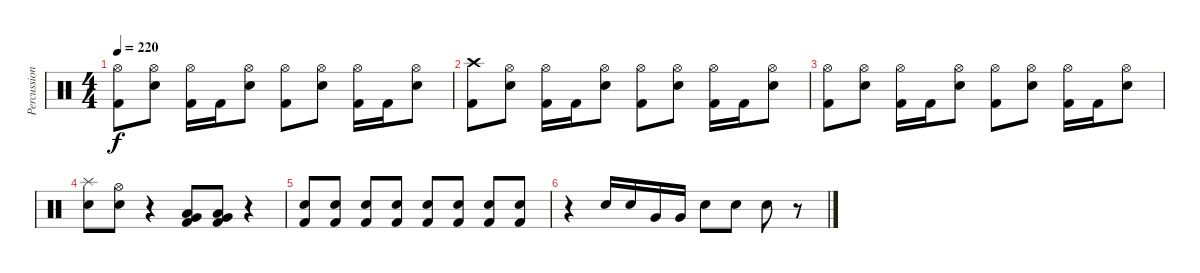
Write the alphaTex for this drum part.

\track ("Percussions" "Percussion") {instrument percussion}
\staff {score}
\articulation defaults
\ts (4 4)
\tempo 220
\clef neutral
\ks c
("Hi-Hat (open)" "Kick (hit) 2").8{dy f} ("Hi-Hat (open)" "Snare (hit) 2").8 ("Hi-Hat (open)" "Kick (hit) 2").16 "Kick (hit) 2".16 ("Hi-Hat (open)" "Snare (hit) 2").8 ("Hi-Hat (open)" "Kick (hit) 2").8 ("Hi-Hat (open)" "Snare (hit) 2").8 ("Hi-Hat (open)" "Kick (hit) 2").16 "Kick (hit) 2".16 ("Hi-Hat (open)" "Snare (hit) 2").8 |
("Crash high (hit)" "Kick (hit) 2").8 ("Hi-Hat (open)" "Snare (hit) 2").8 ("Hi-Hat (open)" "Kick (hit) 2").16 "Kick (hit) 2".16 ("Hi-Hat (open)" "Snare (hit) 2").8 ("Hi-Hat (open)" "Kick (hit) 2").8 ("Hi-Hat (open)" "Snare (hit) 2").8 ("Hi-Hat (open)" "Kick (hit) 2").16 "Kick (hit) 2".16 ("Hi-Hat (open)" "Snare (hit) 2").8 |
("Hi-Hat (open)" "Kick (hit) 2").8 ("Hi-Hat (open)" "Snare (hit) 2").8 ("Hi-Hat (open)" "Kick (hit) 2").16 "Kick (hit) 2".16 ("Hi-Hat (open)" "Snare (hit) 2").8 ("Hi-Hat (open)" "Kick (hit) 2").8 ("Hi-Hat (open)" "Snare (hit) 2").8 ("Hi-Hat (open)" "Kick (hit) 2").16 "Kick (hit) 2".16 ("Hi-Hat (open)" "Snare (hit) 2").8 |
("Splash (hit)" "Snare (hit) 2").8 ("Hi-Hat (open)" "Snare (hit) 2").8 r.4 ("Very Low Tom (hit)" "Low Floor Tom (hit)" "Kick (hit) 2").8 ("Very Low Tom (hit)" "Low Floor Tom (hit)" "Kick (hit) 2").8 r.4 |
("Snare (hit) 2" "Kick (hit) 2").8 ("Snare (hit) 2" "Kick (hit) 2").8 ("Snare (hit) 2" "Kick (hit) 2").8 ("Snare (hit) 2" "Kick (hit) 2").8 ("Snare (hit) 2" "Kick (hit) 2").8 ("Snare (hit) 2" "Kick (hit) 2").8 ("Snare (hit) 2" "Kick (hit) 2").8 ("Snare (hit) 2" "Kick (hit) 2").8 |
r.4 "Snare (hit) 2".16 "Snare (hit) 2".16 "Very Low Tom (hit)".16 "Very Low Tom (hit)".16 "Snare (hit) 2".8 "Snare (hit) 2".8 "Snare (hit) 2".8 r.8
